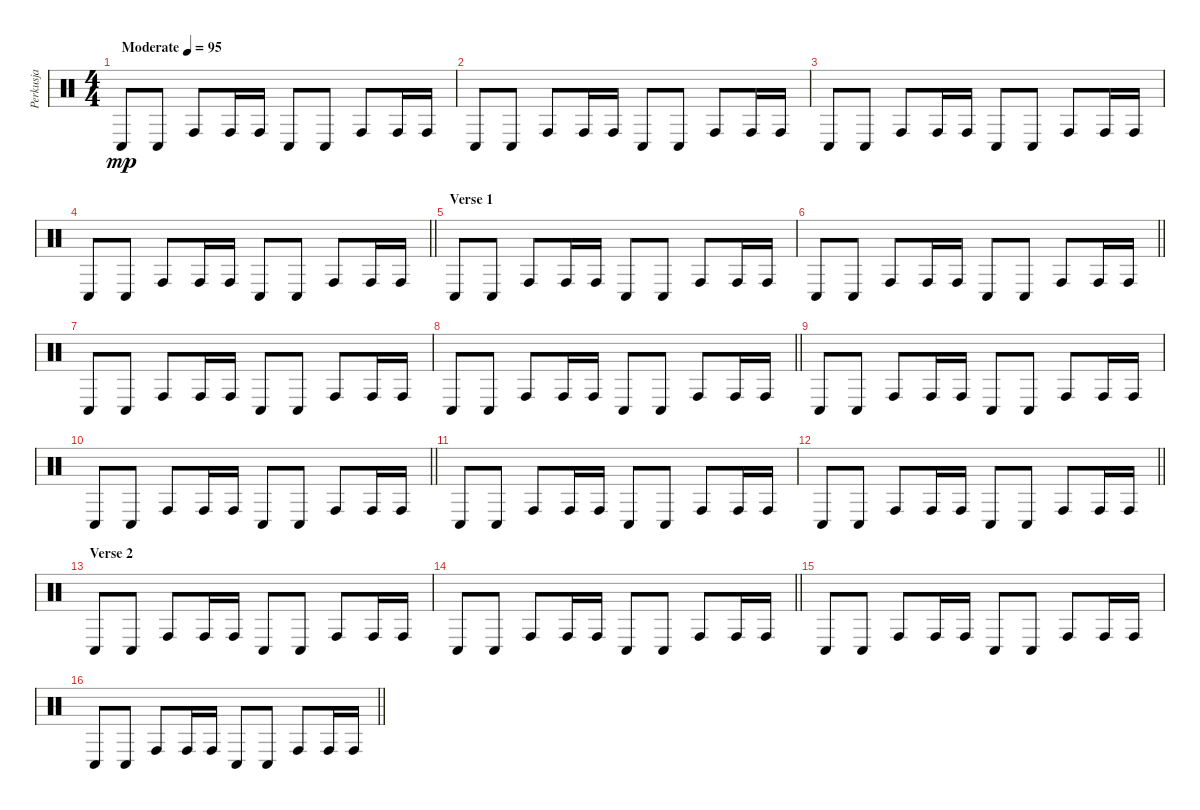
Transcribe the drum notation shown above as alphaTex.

\track ("Perkusja" "Perkusja") {instrument percussion}
\staff {score}
\articulation defaults
\ts (4 4)
\tempo (95 "Moderate")
\clef neutral
\ks c "Conga low (hit)".8{dy mp} "Conga low (hit)".8 "Conga high (hit)".8 "Conga high (hit)".16 "Conga high (hit)".16 "Conga low (hit)".8 "Conga low (hit)".8 "Conga high (hit)".8 "Conga high (hit)".16 "Conga high (hit)".16
|
"Conga low (hit)".8 "Conga low (hit)".8 "Conga high (hit)".8 "Conga high (hit)".16 "Conga high (hit)".16 "Conga low (hit)".8 "Conga low (hit)".8 "Conga high (hit)".8 "Conga high (hit)".16 "Conga high (hit)".16 |
"Conga low (hit)".8 "Conga low (hit)".8 "Conga high (hit)".8 "Conga high (hit)".16 "Conga high (hit)".16 "Conga low (hit)".8 "Conga low (hit)".8 "Conga high (hit)".8 "Conga high (hit)".16 "Conga high (hit)".16 |
\barLineRight lightlight "Conga low (hit)".8 "Conga low (hit)".8 "Conga high (hit)".8 "Conga high (hit)".16 "Conga high (hit)".16 "Conga low (hit)".8 "Conga low (hit)".8 "Conga high (hit)".8 "Conga high (hit)".16 "Conga high (hit)".16
|
\section ("" "Verse 1")
"Conga low (hit)".8 "Conga low (hit)".8 "Conga high (hit)".8 "Conga high (hit)".16 "Conga high (hit)".16 "Conga low (hit)".8 "Conga low (hit)".8 "Conga high (hit)".8 "Conga high (hit)".16 "Conga high (hit)".16 |
\barLineRight lightlight "Conga low (hit)".8 "Conga low (hit)".8 "Conga high (hit)".8 "Conga high (hit)".16 "Conga high (hit)".16 "Conga low (hit)".8 "Conga low (hit)".8 "Conga high (hit)".8 "Conga high (hit)".16 "Conga high (hit)".16
|
"Conga low (hit)".8 "Conga low (hit)".8 "Conga high (hit)".8 "Conga high (hit)".16 "Conga high (hit)".16 "Conga low (hit)".8 "Conga low (hit)".8 "Conga high (hit)".8 "Conga high (hit)".16 "Conga high (hit)".16 |
\barLineRight lightlight "Conga low (hit)".8 "Conga low (hit)".8 "Conga high (hit)".8 "Conga high (hit)".16 "Conga high (hit)".16 "Conga low (hit)".8 "Conga low (hit)".8 "Conga high (hit)".8 "Conga high (hit)".16 "Conga high (hit)".16
|
"Conga low (hit)".8 "Conga low (hit)".8 "Conga high (hit)".8 "Conga high (hit)".16 "Conga high (hit)".16 "Conga low (hit)".8 "Conga low (hit)".8 "Conga high (hit)".8 "Conga high (hit)".16 "Conga high (hit)".16 |
\barLineRight lightlight "Conga low (hit)".8 "Conga low (hit)".8 "Conga high (hit)".8 "Conga high (hit)".16 "Conga high (hit)".16 "Conga low (hit)".8 "Conga low (hit)".8 "Conga high (hit)".8 "Conga high (hit)".16 "Conga high (hit)".16
|
"Conga low (hit)".8 "Conga low (hit)".8 "Conga high (hit)".8 "Conga high (hit)".16 "Conga high (hit)".16 "Conga low (hit)".8 "Conga low (hit)".8 "Conga high (hit)".8 "Conga high (hit)".16 "Conga high (hit)".16 |
\barLineRight lightlight "Conga low (hit)".8 "Conga low (hit)".8 "Conga high (hit)".8 "Conga high (hit)".16 "Conga high (hit)".16 "Conga low (hit)".8 "Conga low (hit)".8 "Conga high (hit)".8 "Conga high (hit)".16 "Conga high (hit)".16
|
\section ("" "Verse 2")
"Conga low (hit)".8 "Conga low (hit)".8 "Conga high (hit)".8 "Conga high (hit)".16 "Conga high (hit)".16 "Conga low (hit)".8 "Conga low (hit)".8 "Conga high (hit)".8 "Conga high (hit)".16 "Conga high (hit)".16 |
\barLineRight lightlight "Conga low (hit)".8 "Conga low (hit)".8 "Conga high (hit)".8 "Conga high (hit)".16 "Conga high (hit)".16 "Conga low (hit)".8 "Conga low (hit)".8 "Conga high (hit)".8 "Conga high (hit)".16 "Conga high (hit)".16
|
"Conga low (hit)".8 "Conga low (hit)".8 "Conga high (hit)".8 "Conga high (hit)".16 "Conga high (hit)".16 "Conga low (hit)".8 "Conga low (hit)".8 "Conga high (hit)".8 "Conga high (hit)".16 "Conga high (hit)".16 |
\barLineRight lightlight "Conga low (hit)".8 "Conga low (hit)".8 "Conga high (hit)".8 "Conga high (hit)".16 "Conga high (hit)".16 "Conga low (hit)".8 "Conga low (hit)".8 "Conga high (hit)".8 "Conga high (hit)".16 "Conga high (hit)".16
